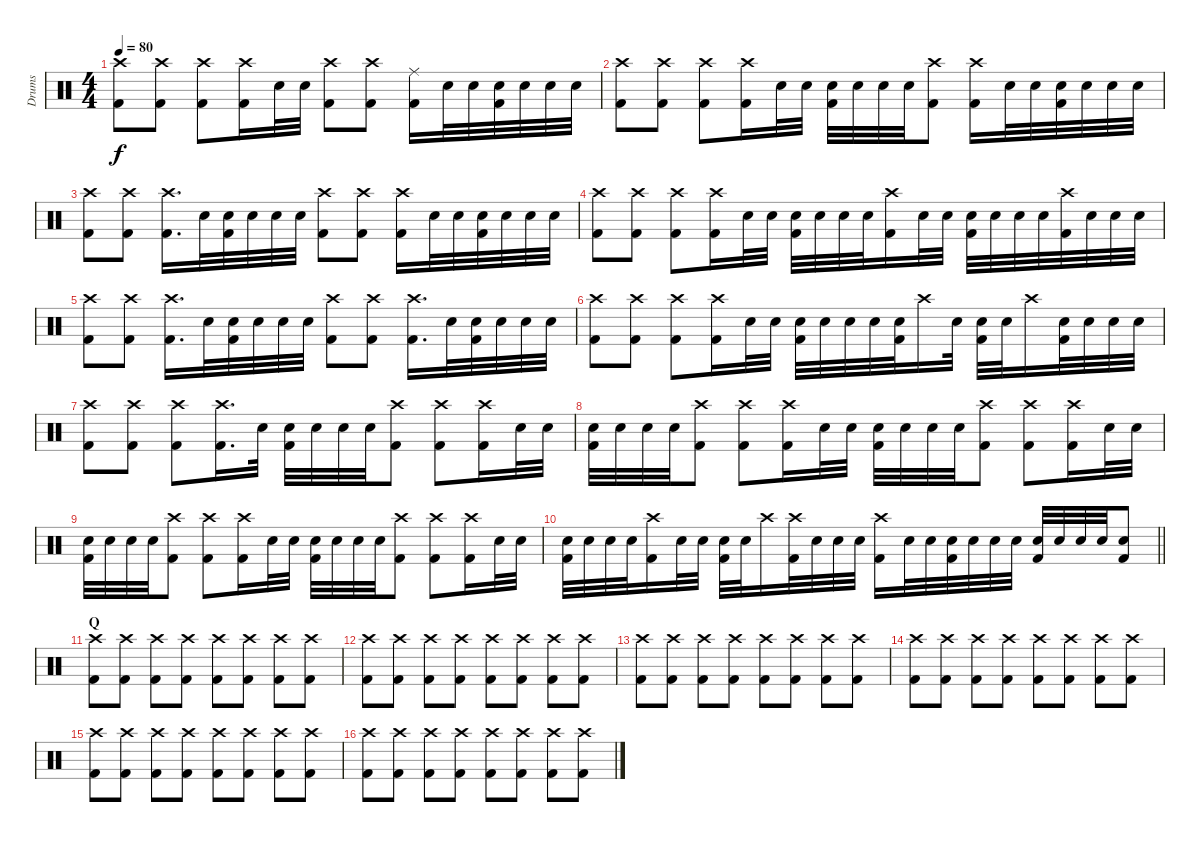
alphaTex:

\track ("Drums" "Drums") {instrument percussion}
\staff {score}
\articulation defaults
\ts (4 4)
\tempo 80
\clef neutral
\ks c
("Crash high (hit)" "Kick (hit) 2").8{dy f} ("Crash high (hit)" "Kick (hit) 2").8 ("Crash high (hit)" "Kick (hit) 2").8 ("Crash high (hit)" "Kick (hit) 2").16 "Snare (hit) 2".32 "Snare (hit) 2".32 ("Crash high (hit)" "Kick (hit) 2").8 ("Crash high (hit)" "Kick (hit) 2").8 ("Ride (middle)" "Kick (hit) 2").16 "Snare (hit) 2".32 "Snare (hit) 2".32 ("Snare (hit) 2" "Kick (hit) 2").32 "Snare (hit) 2".32 "Snare (hit) 2".32 "Snare (hit) 2".32 |
("Crash high (hit)" "Kick (hit) 2").8 ("Crash high (hit)" "Kick (hit) 2").8 ("Crash high (hit)" "Kick (hit) 2").8 ("Crash high (hit)" "Kick (hit) 2").16 "Snare (hit) 2".32 "Snare (hit) 2".32 ("Snare (hit) 2" "Kick (hit) 2").32 "Snare (hit) 2".32 "Snare (hit) 2".32 "Snare (hit) 2".32 ("Crash high (hit)" "Kick (hit) 2").8 ("Crash high (hit)" "Kick (hit) 2").16 "Snare (hit) 2".32 "Snare (hit) 2".32 ("Snare (hit) 2" "Kick (hit) 2").32 "Snare (hit) 2".32 "Snare (hit) 2".32 "Snare (hit) 2".32 |
("Crash high (hit)" "Kick (hit) 2").8 ("Crash high (hit)" "Kick (hit) 2").8 ("Crash high (hit)" "Kick (hit) 2").16{d} "Snare (hit) 2".32 ("Snare (hit) 2" "Kick (hit) 2").32 "Snare (hit) 2".32 "Snare (hit) 2".32 "Snare (hit) 2".32 ("Crash high (hit)" "Kick (hit) 2").8 ("Crash high (hit)" "Kick (hit) 2").8 ("Crash high (hit)" "Kick (hit) 2").16 "Snare (hit) 2".32 "Snare (hit) 2".32 ("Snare (hit) 2" "Kick (hit) 2").32 "Snare (hit) 2".32 "Snare (hit) 2".32 "Snare (hit) 2".32 |
("Crash high (hit)" "Kick (hit) 2").8 ("Crash high (hit)" "Kick (hit) 2").8 ("Crash high (hit)" "Kick (hit) 2").8 ("Crash high (hit)" "Kick (hit) 2").16 "Snare (hit) 2".32 "Snare (hit) 2".32 ("Snare (hit) 2" "Kick (hit) 2").32 "Snare (hit) 2".32 "Snare (hit) 2".32 "Snare (hit) 2".32 ("Crash high (hit)" "Kick (hit) 2").16 "Snare (hit) 2".32 "Snare (hit) 2".32 ("Snare (hit) 2" "Kick (hit) 2").32 "Snare (hit) 2".32 "Snare (hit) 2".32 "Snare (hit) 2".32 ("Crash high (hit)" "Kick (hit) 2").32 "Snare (hit) 2".32 "Snare (hit) 2".32 "Snare (hit) 2".32 |
("Crash high (hit)" "Kick (hit) 2").8 ("Crash high (hit)" "Kick (hit) 2").8 ("Crash high (hit)" "Kick (hit) 2").16{d} "Snare (hit) 2".32 ("Snare (hit) 2" "Kick (hit) 2").32 "Snare (hit) 2".32 "Snare (hit) 2".32 "Snare (hit) 2".32 ("Crash high (hit)" "Kick (hit) 2").8 ("Crash high (hit)" "Kick (hit) 2").8 ("Crash high (hit)" "Kick (hit) 2").16{d} "Snare (hit) 2".32 ("Snare (hit) 2" "Kick (hit) 2").32 "Snare (hit) 2".32 "Snare (hit) 2".32 "Snare (hit) 2".32 |
("Crash high (hit)" "Kick (hit) 2").8 ("Crash high (hit)" "Kick (hit) 2").8 ("Crash high (hit)" "Kick (hit) 2").8 ("Crash high (hit)" "Kick (hit) 2").16 "Snare (hit) 2".32 "Snare (hit) 2".32 ("Snare (hit) 2" "Kick (hit) 2").32 "Snare (hit) 2".32 "Snare (hit) 2".32 "Snare (hit) 2".32 ("Snare (hit) 2" "Kick (hit) 2").32 "Crash high (hit)".16 "Snare (hit) 2".32 ("Snare (hit) 2" "Kick (hit) 2").32 "Snare (hit) 2".32 "Crash high (hit)".16 ("Snare (hit) 2" "Kick (hit) 2").32 "Snare (hit) 2".32 "Snare (hit) 2".32 "Snare (hit) 2".32 |
("Crash high (hit)" "Kick (hit) 2").8 ("Crash high (hit)" "Kick (hit) 2").8 ("Crash high (hit)" "Kick (hit) 2").8 ("Crash high (hit)" "Kick (hit) 2").16{d} "Snare (hit) 2".32 ("Snare (hit) 2" "Kick (hit) 2").32 "Snare (hit) 2".32 "Snare (hit) 2".32 "Snare (hit) 2".32 ("Crash high (hit)" "Kick (hit) 2").8 ("Crash high (hit)" "Kick (hit) 2").8 ("Crash high (hit)" "Kick (hit) 2").16 "Snare (hit) 2".32 "Snare (hit) 2".32 |
("Snare (hit) 2" "Kick (hit) 2").32 "Snare (hit) 2".32 "Snare (hit) 2".32 "Snare (hit) 2".32 ("Crash high (hit)" "Kick (hit) 2").8 ("Crash high (hit)" "Kick (hit) 2").8 ("Crash high (hit)" "Kick (hit) 2").16 "Snare (hit) 2".32 "Snare (hit) 2".32 ("Snare (hit) 2" "Kick (hit) 2").32 "Snare (hit) 2".32 "Snare (hit) 2".32 "Snare (hit) 2".32 ("Crash high (hit)" "Kick (hit) 2").8 ("Crash high (hit)" "Kick (hit) 2").8 ("Crash high (hit)" "Kick (hit) 2").16 "Snare (hit) 2".32 "Snare (hit) 2".32 |
("Snare (hit) 2" "Kick (hit) 2").32 "Snare (hit) 2".32 "Snare (hit) 2".32 "Snare (hit) 2".32 ("Crash high (hit)" "Kick (hit) 2").8 ("Crash high (hit)" "Kick (hit) 2").8 ("Crash high (hit)" "Kick (hit) 2").16 "Snare (hit) 2".32 "Snare (hit) 2".32 ("Snare (hit) 2" "Kick (hit) 2").32 "Snare (hit) 2".32 "Snare (hit) 2".32 "Snare (hit) 2".32 ("Crash high (hit)" "Kick (hit) 2").8 ("Crash high (hit)" "Kick (hit) 2").8 ("Crash high (hit)" "Kick (hit) 2").16 "Snare (hit) 2".32 "Snare (hit) 2".32 |
\barLineRight lightlight
("Snare (hit) 2" "Kick (hit) 2").32 "Snare (hit) 2".32 "Snare (hit) 2".32 "Snare (hit) 2".32 ("Crash high (hit)" "Kick (hit) 2").16 "Snare (hit) 2".32 "Snare (hit) 2".32 ("Snare (hit) 2" "Kick (hit) 2").32 "Snare (hit) 2".32 "Crash high (hit)".16 ("Crash high (hit)" "Kick (hit) 2").32 "Snare (hit) 2".32 "Snare (hit) 2".32 "Snare (hit) 2".32 ("Crash high (hit)" "Kick (hit) 2").16 "Snare (hit) 2".32 "Snare (hit) 2".32 ("Snare (hit) 2" "Kick (hit) 2").32 "Snare (hit) 2".32 "Snare (hit) 2".32 "Snare (hit) 2".32 ("Snare (hit) 2" "Kick (hit) 2").32 "Snare (hit) 2".32 "Snare (hit) 2".32 "Snare (hit) 2".32 ("Snare (hit) 2" "Kick (hit) 2").8 |
\section ("" "Q")
("Crash high (hit)" "Kick (hit) 2").8 ("Crash high (hit)" "Kick (hit) 2").8 ("Crash high (hit)" "Kick (hit) 2").8 ("Crash high (hit)" "Kick (hit) 2").8 ("Crash high (hit)" "Kick (hit) 2").8 ("Crash high (hit)" "Kick (hit) 2").8 ("Crash high (hit)" "Kick (hit) 2").8 ("Crash high (hit)" "Kick (hit) 2").8 |
("Crash high (hit)" "Kick (hit) 2").8 ("Crash high (hit)" "Kick (hit) 2").8 ("Crash high (hit)" "Kick (hit) 2").8 ("Crash high (hit)" "Kick (hit) 2").8 ("Crash high (hit)" "Kick (hit) 2").8 ("Crash high (hit)" "Kick (hit) 2").8 ("Crash high (hit)" "Kick (hit) 2").8 ("Crash high (hit)" "Kick (hit) 2").8 |
("Crash high (hit)" "Kick (hit) 2").8 ("Crash high (hit)" "Kick (hit) 2").8 ("Crash high (hit)" "Kick (hit) 2").8 ("Crash high (hit)" "Kick (hit) 2").8 ("Crash high (hit)" "Kick (hit) 2").8 ("Crash high (hit)" "Kick (hit) 2").8 ("Crash high (hit)" "Kick (hit) 2").8 ("Crash high (hit)" "Kick (hit) 2").8 |
("Crash high (hit)" "Kick (hit) 2").8 ("Crash high (hit)" "Kick (hit) 2").8 ("Crash high (hit)" "Kick (hit) 2").8 ("Crash high (hit)" "Kick (hit) 2").8 ("Crash high (hit)" "Kick (hit) 2").8 ("Crash high (hit)" "Kick (hit) 2").8 ("Crash high (hit)" "Kick (hit) 2").8 ("Crash high (hit)" "Kick (hit) 2").8 |
("Crash high (hit)" "Kick (hit) 2").8 ("Crash high (hit)" "Kick (hit) 2").8 ("Crash high (hit)" "Kick (hit) 2").8 ("Crash high (hit)" "Kick (hit) 2").8 ("Crash high (hit)" "Kick (hit) 2").8 ("Crash high (hit)" "Kick (hit) 2").8 ("Crash high (hit)" "Kick (hit) 2").8 ("Crash high (hit)" "Kick (hit) 2").8 |
("Crash high (hit)" "Kick (hit) 2").8 ("Crash high (hit)" "Kick (hit) 2").8 ("Crash high (hit)" "Kick (hit) 2").8 ("Crash high (hit)" "Kick (hit) 2").8 ("Crash high (hit)" "Kick (hit) 2").8 ("Crash high (hit)" "Kick (hit) 2").8 ("Crash high (hit)" "Kick (hit) 2").8 ("Crash high (hit)" "Kick (hit) 2").8
